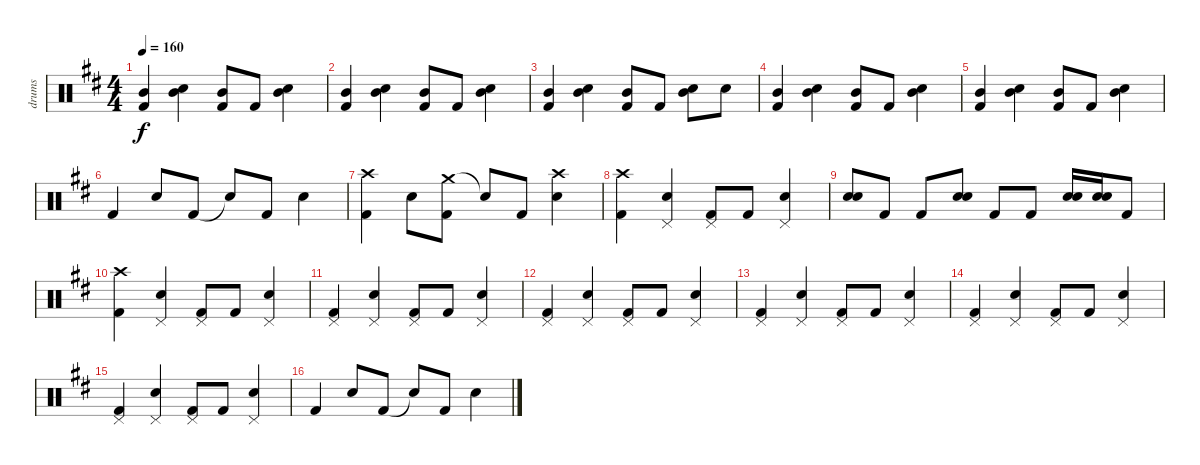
\track ("drums" "drums") {instrument percussion}
\staff {score}
\articulation defaults
\ts (4 4)
\tempo 160
\clef neutral
\ks bminor
("Mid Tom (hit)" "Kick (hit) 2").4{dy f} ("Mid Tom (hit)" "Snare (hit) 2").4 ("Mid Tom (hit)" "Kick (hit) 2").8 "Kick (hit) 2".8 ("Mid Tom (hit)" "Snare (hit) 2").4 |
("Mid Tom (hit)" "Kick (hit) 2").4 ("Mid Tom (hit)" "Snare (hit) 2").4 ("Mid Tom (hit)" "Kick (hit) 2").8 "Kick (hit) 2".8 ("Mid Tom (hit)" "Snare (hit) 2").4 |
("Mid Tom (hit)" "Kick (hit) 2").4 ("Mid Tom (hit)" "Snare (hit) 2").4 ("Mid Tom (hit)" "Kick (hit) 2").8 "Kick (hit) 2".8 ("Mid Tom (hit)" "Snare (hit) 2").8 "Snare (hit) 2".8 |
("Mid Tom (hit)" "Kick (hit) 2").4 ("Mid Tom (hit)" "Snare (hit) 2").4 ("Mid Tom (hit)" "Kick (hit) 2").8 "Kick (hit) 2".8 ("Mid Tom (hit)" "Snare (hit) 2").4 |
("Mid Tom (hit)" "Kick (hit) 2").4 ("Mid Tom (hit)" "Snare (hit) 2").4 ("Mid Tom (hit)" "Kick (hit) 2").8 "Kick (hit) 2".8 ("Mid Tom (hit)" "Snare (hit) 2").4 |
"Kick (hit) 2".4 "Snare (hit) 2".8 "Kick (hit) 2".8 "Snare (hit)"{t}.8 "Kick (hit) 2".8 "Snare (hit) 2".4 |
("Crash high (hit)" "Kick (hit) 2").4 "Snare (hit) 2".8 ("Crash medium (hit)" "Kick (hit) 2").8 "Snare (hit)"{t}.8 "Kick (hit) 2".8 ("Crash high (hit)" "Snare (hit) 2").4 |
("Crash high (hit)" "Kick (hit) 2").4 ("Pedal Hi-Hat (hit)" "Snare (hit) 2").4 ("Pedal Hi-Hat (hit)" "Kick (hit) 2").8 "Kick (hit) 2".8 ("Pedal Hi-Hat (hit)" "Snare (hit) 2").4 |
("Snare (hit) 2" "Snare (hit) 2").8 "Kick (hit) 2".8 "Kick (hit) 2".8 ("Snare (hit) 2" "Snare (hit) 2").8 "Kick (hit) 2".8 "Kick (hit) 2".8 ("Snare (hit) 2" "Snare (hit) 2").16 ("Snare (hit) 2" "Snare (hit) 2").16 "Kick (hit) 2".8 |
("Crash high (hit)" "Kick (hit) 2").4 ("Pedal Hi-Hat (hit)" "Snare (hit) 2").4 ("Pedal Hi-Hat (hit)" "Kick (hit) 2").8 "Kick (hit) 2".8 ("Pedal Hi-Hat (hit)" "Snare (hit) 2").4 |
("Pedal Hi-Hat (hit)" "Kick (hit) 2").4 ("Pedal Hi-Hat (hit)" "Snare (hit) 2").4 ("Pedal Hi-Hat (hit)" "Kick (hit) 2").8 "Kick (hit) 2".8 ("Pedal Hi-Hat (hit)" "Snare (hit) 2").4 |
("Pedal Hi-Hat (hit)" "Kick (hit) 2").4 ("Pedal Hi-Hat (hit)" "Snare (hit) 2").4 ("Pedal Hi-Hat (hit)" "Kick (hit) 2").8 "Kick (hit) 2".8 ("Pedal Hi-Hat (hit)" "Snare (hit) 2").4 |
("Pedal Hi-Hat (hit)" "Kick (hit) 2").4 ("Pedal Hi-Hat (hit)" "Snare (hit) 2").4 ("Pedal Hi-Hat (hit)" "Kick (hit) 2").8 "Kick (hit) 2".8 ("Pedal Hi-Hat (hit)" "Snare (hit) 2").4 |
("Pedal Hi-Hat (hit)" "Kick (hit) 2").4 ("Pedal Hi-Hat (hit)" "Snare (hit) 2").4 ("Pedal Hi-Hat (hit)" "Kick (hit) 2").8 "Kick (hit) 2".8 ("Pedal Hi-Hat (hit)" "Snare (hit) 2").4 |
("Pedal Hi-Hat (hit)" "Kick (hit) 2").4 ("Pedal Hi-Hat (hit)" "Snare (hit) 2").4 ("Pedal Hi-Hat (hit)" "Kick (hit) 2").8 "Kick (hit) 2".8 ("Pedal Hi-Hat (hit)" "Snare (hit) 2").4 |
"Kick (hit) 2".4 "Snare (hit) 2".8 "Kick (hit) 2".8 "Snare (hit)"{t}.8 "Kick (hit) 2".8 "Snare (hit) 2".4
